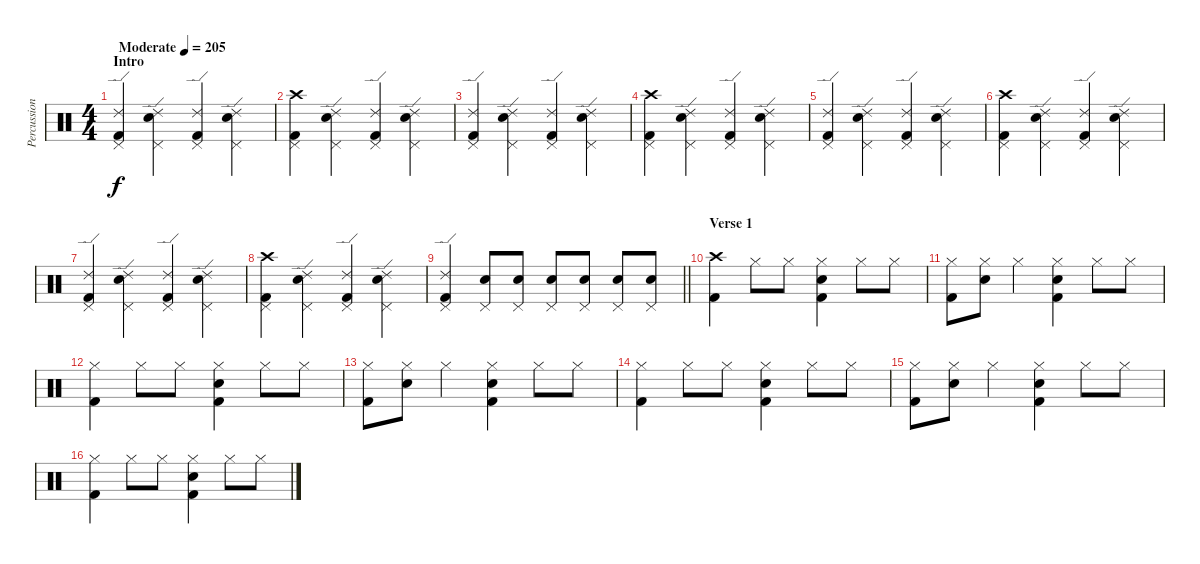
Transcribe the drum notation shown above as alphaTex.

\track ("Percussion" "Percussion") {instrument percussion}
\staff {score}
\articulation defaults
\ts (4 4)
\section ("" "Intro")
\tempo (205 "Moderate")
\clef neutral
\ks c
("Ride (edge) 2" "Pedal Hi-Hat (hit)" "Kick (hit) 2").4{dy f} ("Ride (edge) 2" "Electric Snare (hit)" "Pedal Hi-Hat (hit)").4 ("Ride (edge) 2" "Pedal Hi-Hat (hit)" "Kick (hit) 2").4 ("Ride (edge) 2" "Electric Snare (hit)" "Pedal Hi-Hat (hit)").4 |
("Crash high (hit)" "Pedal Hi-Hat (hit)" "Kick (hit) 2").4 ("Ride (edge) 2" "Electric Snare (hit)" "Pedal Hi-Hat (hit)").4 ("Ride (edge) 2" "Pedal Hi-Hat (hit)" "Kick (hit) 2").4 ("Ride (edge) 2" "Electric Snare (hit)" "Pedal Hi-Hat (hit)").4 |
("Ride (edge) 2" "Pedal Hi-Hat (hit)" "Kick (hit) 2").4 ("Ride (edge) 2" "Electric Snare (hit)" "Pedal Hi-Hat (hit)").4 ("Ride (edge) 2" "Pedal Hi-Hat (hit)" "Kick (hit) 2").4 ("Ride (edge) 2" "Electric Snare (hit)" "Pedal Hi-Hat (hit)").4 |
("Crash high (hit)" "Pedal Hi-Hat (hit)" "Kick (hit) 2").4 ("Ride (edge) 2" "Electric Snare (hit)" "Pedal Hi-Hat (hit)").4 ("Ride (edge) 2" "Pedal Hi-Hat (hit)" "Kick (hit) 2").4 ("Ride (edge) 2" "Electric Snare (hit)" "Pedal Hi-Hat (hit)").4 |
("Ride (edge) 2" "Pedal Hi-Hat (hit)" "Kick (hit) 2").4 ("Ride (edge) 2" "Electric Snare (hit)" "Pedal Hi-Hat (hit)").4 ("Ride (edge) 2" "Pedal Hi-Hat (hit)" "Kick (hit) 2").4 ("Ride (edge) 2" "Electric Snare (hit)" "Pedal Hi-Hat (hit)").4 |
("Crash high (hit)" "Pedal Hi-Hat (hit)" "Kick (hit) 2").4 ("Ride (edge) 2" "Electric Snare (hit)" "Pedal Hi-Hat (hit)").4 ("Ride (edge) 2" "Pedal Hi-Hat (hit)" "Kick (hit) 2").4 ("Ride (edge) 2" "Electric Snare (hit)" "Pedal Hi-Hat (hit)").4 |
("Ride (edge) 2" "Pedal Hi-Hat (hit)" "Kick (hit) 2").4 ("Ride (edge) 2" "Electric Snare (hit)" "Pedal Hi-Hat (hit)").4 ("Ride (edge) 2" "Pedal Hi-Hat (hit)" "Kick (hit) 2").4 ("Ride (edge) 2" "Electric Snare (hit)" "Pedal Hi-Hat (hit)").4 |
("Crash high (hit)" "Pedal Hi-Hat (hit)" "Kick (hit) 2").4 ("Ride (edge) 2" "Electric Snare (hit)" "Pedal Hi-Hat (hit)").4 ("Ride (edge) 2" "Pedal Hi-Hat (hit)" "Kick (hit) 2").4 ("Ride (edge) 2" "Electric Snare (hit)" "Pedal Hi-Hat (hit)").4 |
\barLineRight lightlight
("Ride (edge) 2" "Pedal Hi-Hat (hit)" "Kick (hit) 2").4 ("Electric Snare (hit)" "Pedal Hi-Hat (hit)").8 ("Electric Snare (hit)" "Pedal Hi-Hat (hit)").8 ("Electric Snare (hit)" "Pedal Hi-Hat (hit)").8 ("Electric Snare (hit)" "Pedal Hi-Hat (hit)").8 ("Electric Snare (hit)" "Pedal Hi-Hat (hit)").8 ("Electric Snare (hit)" "Pedal Hi-Hat (hit)").8 |
\section ("" "Verse 1")
("Crash high (hit)" "Kick (hit) 2").4 "Hi-Hat (closed)".8 "Hi-Hat (closed)".8 ("Electric Snare (hit)" "Hi-Hat (closed)" "Kick (hit) 2").4 "Hi-Hat (closed)".8 "Hi-Hat (closed)".8 |
("Hi-Hat (closed)" "Kick (hit) 2").8 ("Electric Snare (hit)" "Hi-Hat (closed)").8 "Hi-Hat (closed)".4 ("Electric Snare (hit)" "Hi-Hat (closed)" "Kick (hit) 2").4 "Hi-Hat (closed)".8 "Hi-Hat (closed)".8 |
("Hi-Hat (closed)" "Kick (hit) 2").4 "Hi-Hat (closed)".8 "Hi-Hat (closed)".8 ("Electric Snare (hit)" "Hi-Hat (closed)" "Kick (hit) 2").4 "Hi-Hat (closed)".8 "Hi-Hat (closed)".8 |
("Hi-Hat (closed)" "Kick (hit) 2").8 ("Electric Snare (hit)" "Hi-Hat (closed)").8 "Hi-Hat (closed)".4 ("Electric Snare (hit)" "Hi-Hat (closed)" "Kick (hit) 2").4 "Hi-Hat (closed)".8 "Hi-Hat (closed)".8 |
("Hi-Hat (closed)" "Kick (hit) 2").4 "Hi-Hat (closed)".8 "Hi-Hat (closed)".8 ("Electric Snare (hit)" "Hi-Hat (closed)" "Kick (hit) 2").4 "Hi-Hat (closed)".8 "Hi-Hat (closed)".8 |
("Hi-Hat (closed)" "Kick (hit) 2").8 ("Electric Snare (hit)" "Hi-Hat (closed)").8 "Hi-Hat (closed)".4 ("Electric Snare (hit)" "Hi-Hat (closed)" "Kick (hit) 2").4 "Hi-Hat (closed)".8 "Hi-Hat (closed)".8 |
("Hi-Hat (closed)" "Kick (hit) 2").4 "Hi-Hat (closed)".8 "Hi-Hat (closed)".8 ("Electric Snare (hit)" "Hi-Hat (closed)" "Kick (hit) 2").4 "Hi-Hat (closed)".8 "Hi-Hat (closed)".8
